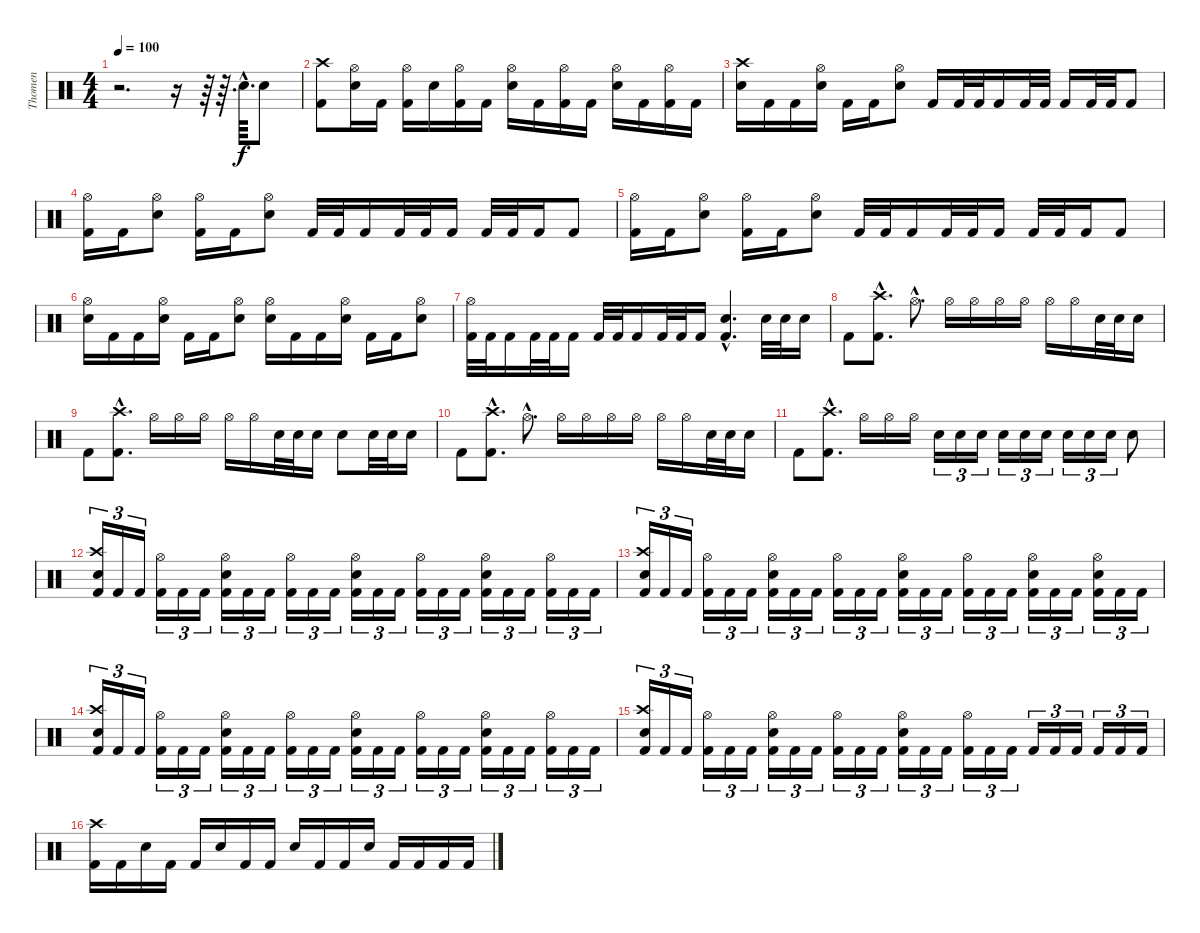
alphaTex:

\track ("Thomen" "Thomen") {instrument percussion}
\staff {score}
\articulation defaults
\ts (4 4)
\tempo 100
\clef neutral
\ks c
r.2{d dy f} r.16 r.64 r.64{d} "Snare (hit) 2"{hac}.64{d} "Snare (hit) 2".8 |
("Crash high (hit)" "Kick (hit) 2").8 ("Hi-Hat (open)" "Snare (hit) 2").16 "Kick (hit) 2".16 ("Hi-Hat (open)" "Kick (hit) 2").16 "Snare (hit) 2".16 ("Hi-Hat (open)" "Kick (hit) 2").16 "Kick (hit) 2".16 ("Hi-Hat (open)" "Snare (hit) 2").16 "Kick (hit) 2".16 ("Hi-Hat (open)" "Kick (hit) 2").16 "Kick (hit) 2".16 ("Hi-Hat (open)" "Snare (hit) 2").16 "Kick (hit) 2".16 ("Hi-Hat (open)" "Kick (hit) 2").16 "Kick (hit) 2".16 |
("Crash high (hit)" "Snare (hit) 2").16 "Kick (hit) 2".16 "Kick (hit) 2".16 ("Hi-Hat (open)" "Snare (hit) 2").16 "Kick (hit) 2".16 "Kick (hit) 2".16 ("Hi-Hat (open)" "Snare (hit) 2").8 "Kick (hit) 2".16 "Kick (hit) 2".32 "Kick (hit) 2".32 "Kick (hit) 2".16 "Kick (hit) 2".32 "Kick (hit) 2".32 "Kick (hit) 2".16 "Kick (hit) 2".32 "Kick (hit) 2".32 "Kick (hit) 2".8 |
("Hi-Hat (open)" "Kick (hit) 2").16 "Kick (hit) 2".16 ("Hi-Hat (open)" "Snare (hit) 2").8 ("Hi-Hat (open)" "Kick (hit) 2").16 "Kick (hit) 2".16 ("Hi-Hat (open)" "Snare (hit) 2").8 "Kick (hit) 2".32 "Kick (hit) 2".32 "Kick (hit) 2".16 "Kick (hit) 2".32 "Kick (hit) 2".32 "Kick (hit) 2".16 "Kick (hit) 2".32 "Kick (hit) 2".32 "Kick (hit) 2".16 "Kick (hit) 2".8 |
("Hi-Hat (open)" "Kick (hit) 2").16 "Kick (hit) 2".16 ("Hi-Hat (open)" "Snare (hit) 2").8 ("Hi-Hat (open)" "Kick (hit) 2").16 "Kick (hit) 2".16 ("Hi-Hat (open)" "Snare (hit) 2").8 "Kick (hit) 2".32 "Kick (hit) 2".32 "Kick (hit) 2".16 "Kick (hit) 2".32 "Kick (hit) 2".32 "Kick (hit) 2".16 "Kick (hit) 2".32 "Kick (hit) 2".32 "Kick (hit) 2".16 "Kick (hit) 2".8 |
("Hi-Hat (open)" "Snare (hit) 2").16 "Kick (hit) 2".16 "Kick (hit) 2".16 ("Hi-Hat (open)" "Snare (hit) 2").16 "Kick (hit) 2".16 "Kick (hit) 2".16 ("Hi-Hat (open)" "Snare (hit) 2").8 ("Hi-Hat (open)" "Snare (hit) 2").16 "Kick (hit) 2".16 "Kick (hit) 2".16 ("Hi-Hat (open)" "Snare (hit) 2").16 "Kick (hit) 2".16 "Kick (hit) 2".16 ("Hi-Hat (open)" "Snare (hit) 2").8 |
("Hi-Hat (open)" "Kick (hit) 2").32 "Kick (hit) 2".32 "Kick (hit) 2".16 "Kick (hit) 2".32 "Kick (hit) 2".32 "Kick (hit) 2".16 "Kick (hit) 2".32 "Kick (hit) 2".32 "Kick (hit) 2".16 "Kick (hit) 2".32 "Kick (hit) 2".32 "Kick (hit) 2".16 ("Snare (hit) 2"{hac} "Kick (hit) 2"{hac}).4{d} "Snare (hit) 2".32 "Snare (hit) 2".32 "Snare (hit) 2".16 |
"Kick (hit) 2".8 ("Crash high (hit)"{hac} "Kick (hit) 2"{hac}).8{d} "Hi-Hat (open)"{hac}.8{d} "Hi-Hat (open)".16 "Hi-Hat (open)".16 "Hi-Hat (open)".16 "Hi-Hat (open)".16 "Hi-Hat (open)".16 "Hi-Hat (open)".16 "Snare (hit) 2".32 "Snare (hit) 2".32 "Snare (hit) 2".16 |
"Kick (hit) 2".8 ("Crash high (hit)"{hac} "Kick (hit) 2"{hac}).8{d} "Hi-Hat (open)".16 "Hi-Hat (open)".16 "Hi-Hat (open)".16 "Hi-Hat (open)".16 "Hi-Hat (open)".16 "Snare (hit) 2".32 "Snare (hit) 2".32 "Snare (hit) 2".16 "Snare (hit) 2".8 "Snare (hit) 2".32 "Snare (hit) 2".32 "Snare (hit) 2".16 |
"Kick (hit) 2".8 ("Crash high (hit)"{hac} "Kick (hit) 2"{hac}).8{d} "Hi-Hat (open)"{hac}.8{d} "Hi-Hat (open)".16 "Hi-Hat (open)".16 "Hi-Hat (open)".16 "Hi-Hat (open)".16 "Hi-Hat (open)".16 "Hi-Hat (open)".16 "Snare (hit) 2".32 "Snare (hit) 2".32 "Snare (hit) 2".16 |
"Kick (hit) 2".8 ("Crash high (hit)"{hac} "Kick (hit) 2"{hac}).8{d} "Hi-Hat (open)".16 "Hi-Hat (open)".16 "Hi-Hat (open)".16 "Snare (hit) 2".16{tu (3 2)} "Snare (hit) 2".16{tu (3 2)} "Snare (hit) 2".16{tu (3 2)} "Snare (hit) 2".16{tu (3 2)} "Snare (hit) 2".16{tu (3 2)} "Snare (hit) 2".16{tu (3 2)} "Snare (hit) 2".16{tu (3 2)} "Snare (hit) 2".16{tu (3 2)} "Snare (hit) 2".16{tu (3 2)} "Snare (hit) 2".8 |
("Crash high (hit)" "Snare (hit) 2" "Kick (hit) 2").16{tu (3 2)} "Kick (hit) 2".16{tu (3 2)} "Kick (hit) 2".16{tu (3 2)} ("Hi-Hat (open)" "Kick (hit) 2").16{tu (3 2)} "Kick (hit) 2".16{tu (3 2)} "Kick (hit) 2".16{tu (3 2)} ("Hi-Hat (open)" "Snare (hit) 2" "Kick (hit) 2").16{tu (3 2)} "Kick (hit) 2".16{tu (3 2)} "Kick (hit) 2".16{tu (3 2)} ("Hi-Hat (open)" "Kick (hit) 2").16{tu (3 2)} "Kick (hit) 2".16{tu (3 2)} "Kick (hit) 2".16{tu (3 2)} ("Hi-Hat (open)" "Snare (hit) 2" "Kick (hit) 2").16{tu (3 2)} "Kick (hit) 2".16{tu (3 2)} "Kick (hit) 2".16{tu (3 2)} ("Hi-Hat (open)" "Kick (hit) 2").16{tu (3 2)} "Kick (hit) 2".16{tu (3 2)} "Kick (hit) 2".16{tu (3 2)} ("Hi-Hat (open)" "Snare (hit) 2" "Kick (hit) 2").16{tu (3 2)} "Kick (hit) 2".16{tu (3 2)} "Kick (hit) 2".16{tu (3 2)} ("Hi-Hat (open)" "Kick (hit) 2").16{tu (3 2)} "Kick (hit) 2".16{tu (3 2)} "Kick (hit) 2".16{tu (3 2)} |
("Crash high (hit)" "Snare (hit) 2" "Kick (hit) 2").16{tu (3 2)} "Kick (hit) 2".16{tu (3 2)} "Kick (hit) 2".16{tu (3 2)} ("Hi-Hat (open)" "Kick (hit) 2").16{tu (3 2)} "Kick (hit) 2".16{tu (3 2)} "Kick (hit) 2".16{tu (3 2)} ("Hi-Hat (open)" "Snare (hit) 2" "Kick (hit) 2").16{tu (3 2)} "Kick (hit) 2".16{tu (3 2)} "Kick (hit) 2".16{tu (3 2)} ("Hi-Hat (open)" "Kick (hit) 2").16{tu (3 2)} "Kick (hit) 2".16{tu (3 2)} "Kick (hit) 2".16{tu (3 2)} ("Hi-Hat (open)" "Snare (hit) 2" "Kick (hit) 2").16{tu (3 2)} "Kick (hit) 2".16{tu (3 2)} "Kick (hit) 2".16{tu (3 2)} ("Hi-Hat (open)" "Kick (hit) 2").16{tu (3 2)} "Kick (hit) 2".16{tu (3 2)} "Kick (hit) 2".16{tu (3 2)} ("Hi-Hat (open)" "Snare (hit) 2" "Kick (hit) 2").16{tu (3 2)} "Kick (hit) 2".16{tu (3 2)} "Kick (hit) 2".16{tu (3 2)} ("Hi-Hat (open)" "Snare (hit) 2" "Kick (hit) 2").16{tu (3 2)} "Kick (hit) 2".16{tu (3 2)} "Kick (hit) 2".16{tu (3 2)} |
("Crash high (hit)" "Snare (hit) 2" "Kick (hit) 2").16{tu (3 2)} "Kick (hit) 2".16{tu (3 2)} "Kick (hit) 2".16{tu (3 2)} ("Hi-Hat (open)" "Kick (hit) 2").16{tu (3 2)} "Kick (hit) 2".16{tu (3 2)} "Kick (hit) 2".16{tu (3 2)} ("Hi-Hat (open)" "Snare (hit) 2" "Kick (hit) 2").16{tu (3 2)} "Kick (hit) 2".16{tu (3 2)} "Kick (hit) 2".16{tu (3 2)} ("Hi-Hat (open)" "Kick (hit) 2").16{tu (3 2)} "Kick (hit) 2".16{tu (3 2)} "Kick (hit) 2".16{tu (3 2)} ("Hi-Hat (open)" "Snare (hit) 2" "Kick (hit) 2").16{tu (3 2)} "Kick (hit) 2".16{tu (3 2)} "Kick (hit) 2".16{tu (3 2)} ("Hi-Hat (open)" "Kick (hit) 2").16{tu (3 2)} "Kick (hit) 2".16{tu (3 2)} "Kick (hit) 2".16{tu (3 2)} ("Hi-Hat (open)" "Snare (hit) 2" "Kick (hit) 2").16{tu (3 2)} "Kick (hit) 2".16{tu (3 2)} "Kick (hit) 2".16{tu (3 2)} ("Hi-Hat (open)" "Kick (hit) 2").16{tu (3 2)} "Kick (hit) 2".16{tu (3 2)} "Kick (hit) 2".16{tu (3 2)} |
("Crash high (hit)" "Snare (hit) 2" "Kick (hit) 2").16{tu (3 2)} "Kick (hit) 2".16{tu (3 2)} "Kick (hit) 2".16{tu (3 2)} ("Hi-Hat (open)" "Kick (hit) 2").16{tu (3 2)} "Kick (hit) 2".16{tu (3 2)} "Kick (hit) 2".16{tu (3 2)} ("Hi-Hat (open)" "Snare (hit) 2" "Kick (hit) 2").16{tu (3 2)} "Kick (hit) 2".16{tu (3 2)} "Kick (hit) 2".16{tu (3 2)} ("Hi-Hat (open)" "Kick (hit) 2").16{tu (3 2)} "Kick (hit) 2".16{tu (3 2)} "Kick (hit) 2".16{tu (3 2)} ("Hi-Hat (open)" "Snare (hit) 2" "Kick (hit) 2").16{tu (3 2)} "Kick (hit) 2".16{tu (3 2)} "Kick (hit) 2".16{tu (3 2)} ("Hi-Hat (open)" "Kick (hit) 2").16{tu (3 2)} "Kick (hit) 2".16{tu (3 2)} "Kick (hit) 2".16{tu (3 2)} "Kick (hit) 2".16{tu (3 2)} "Kick (hit) 2".16{tu (3 2)} "Kick (hit) 2".16{tu (3 2)} "Kick (hit) 2".16{tu (3 2)} "Kick (hit) 2".16{tu (3 2)} "Kick (hit) 2".16{tu (3 2)} |
("Crash high (hit)" "Kick (hit) 2").16 "Kick (hit) 2".16 "Snare (hit) 2".16 "Kick (hit) 2".16 "Kick (hit) 2".16 "Snare (hit) 2".16 "Kick (hit) 2".16 "Kick (hit) 2".16 "Snare (hit) 2".16 "Kick (hit) 2".16 "Kick (hit) 2".16 "Snare (hit) 2".16 "Kick (hit) 2".16 "Kick (hit) 2".16 "Kick (hit) 2".16 "Kick (hit) 2".16
